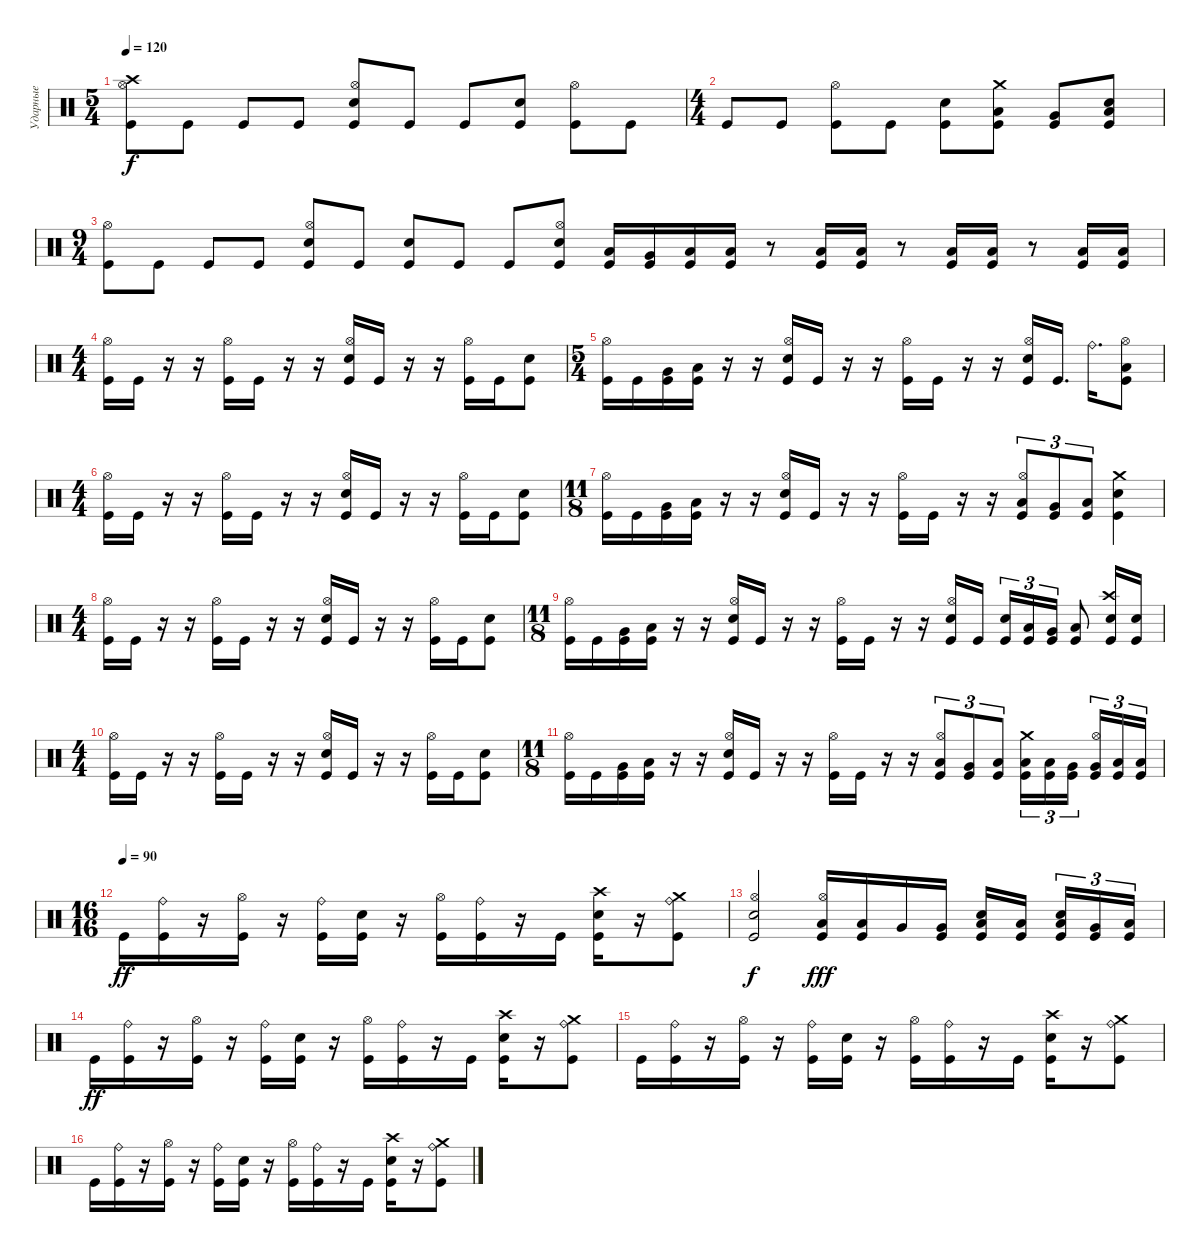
\track ("Ударные" "Ударные") {instrument percussion}
\staff {score}
\articulation defaults
\ts (5 4)
\tempo 120
\clef neutral
\ks c
("Kick (hit)" "Crash high (hit)" "Hi-Hat (open)").8{dy f} "Kick (hit)".8 "Kick (hit)".8 "Kick (hit)".8 ("Kick (hit)" "Snare (hit) 2" "Hi-Hat (open)").8 "Kick (hit)".8 "Kick (hit)".8 ("Kick (hit)" "Snare (hit) 2").8 ("Kick (hit)" "Hi-Hat (open)").8 "Kick (hit)".8 |
\ts (4 4)
"Kick (hit)".8 "Kick (hit)".8 ("Kick (hit)" "Hi-Hat (open)").8 "Kick (hit)".8 ("Kick (hit)" "Snare (hit) 2").8 ("Kick (hit)" "Low Tom (hit)" "Crash medium (hit)").8 ("Kick (hit)" "Very Low Tom (hit)").8 ("Kick (hit)" "Low Floor Tom (hit)" "Snare (hit) 2").8 |
\ts (9 4)
("Kick (hit)" "Hi-Hat (open)").8 "Kick (hit)".8 "Kick (hit)".8 "Kick (hit)".8 ("Kick (hit)" "Hi-Hat (open)" "Snare (hit) 2").8 "Kick (hit)".8 ("Kick (hit)" "Snare (hit) 2").8 "Kick (hit)".8 "Kick (hit)".8 ("Kick (hit)" "Hi-Hat (open)" "Snare (hit) 2").8 ("Kick (hit)" "Low Tom (hit)").16 ("Kick (hit)" "Very Low Tom (hit)").16 ("Kick (hit)" "Low Floor Tom (hit)").16 ("Kick (hit)" "Low Floor Tom (hit)").16 r.8 ("Kick (hit)" "Low Floor Tom (hit)").16 ("Kick (hit)" "Low Floor Tom (hit)").16 r.8 ("Kick (hit)" "Low Floor Tom (hit)").16 ("Kick (hit)" "Low Floor Tom (hit)").16 r.8 ("Kick (hit)" "Low Floor Tom (hit)").16 ("Kick (hit)" "Low Floor Tom (hit)").16 |
\ts (4 4)
("Kick (hit)" "Hi-Hat (open)").16 "Kick (hit)".16 r.16 r.16 ("Kick (hit)" "Hi-Hat (open)").16 "Kick (hit)".16 r.16 r.16 ("Kick (hit)" "Snare (hit) 2" "Hi-Hat (open)").16 "Kick (hit)".16 r.16 r.16 ("Kick (hit)" "Hi-Hat (open)").16 "Kick (hit)".16 ("Kick (hit)" "Snare (hit) 2").8 |
\ts (5 4)
("Kick (hit)" "Hi-Hat (open)").16 "Kick (hit)".16 ("Kick (hit)" "Very Low Tom (hit)").16 ("Kick (hit)" "Low Floor Tom (hit)").16 r.16 r.16 ("Kick (hit)" "Snare (hit) 2" "Hi-Hat (open)").16 "Kick (hit)".16 r.16 r.16 ("Kick (hit)" "Hi-Hat (open)").16 "Kick (hit)".16 r.16 r.16 ("Kick (hit)" "Snare (hit) 2" "Hi-Hat (open)").16 "Kick (hit)".16{d} "Ride (bell)".16{d} ("Kick (hit)" "Low Floor Tom (hit)" "Hi-Hat (open)").8 |
\ts (4 4)
("Kick (hit)" "Hi-Hat (open)").16 "Kick (hit)".16 r.16 r.16 ("Kick (hit)" "Hi-Hat (open)").16 "Kick (hit)".16 r.16 r.16 ("Kick (hit)" "Snare (hit) 2" "Hi-Hat (open)").16 "Kick (hit)".16 r.16 r.16 ("Kick (hit)" "Hi-Hat (open)").16 "Kick (hit)".16 ("Kick (hit)" "Snare (hit) 2").8 |
\ts (11 8)
("Kick (hit)" "Hi-Hat (open)").16 "Kick (hit)".16 ("Kick (hit)" "Very Low Tom (hit)").16 ("Kick (hit)" "Low Floor Tom (hit)").16 r.16 r.16 ("Kick (hit)" "Snare (hit) 2" "Hi-Hat (open)").16 "Kick (hit)".16 r.16 r.16 ("Kick (hit)" "Hi-Hat (open)").16 "Kick (hit)".16 r.16 r.16 ("Kick (hit)" "Low Tom (hit)" "Hi-Hat (open)").8{tu (3 2)} ("Kick (hit)" "Very Low Tom (hit)").8{tu (3 2)} ("Kick (hit)" "Low Floor Tom (hit)").8{tu (3 2)} ("Kick (hit)" "Crash medium (hit)" "Snare (hit) 2").4 |
\ts (4 4)
("Kick (hit)" "Hi-Hat (open)").16 "Kick (hit)".16 r.16 r.16 ("Kick (hit)" "Hi-Hat (open)").16 "Kick (hit)".16 r.16 r.16 ("Kick (hit)" "Snare (hit) 2" "Hi-Hat (open)").16 "Kick (hit)".16 r.16 r.16 ("Kick (hit)" "Hi-Hat (open)").16 "Kick (hit)".16 ("Kick (hit)" "Snare (hit) 2").8 |
\ts (11 8)
("Kick (hit)" "Hi-Hat (open)").16 "Kick (hit)".16 ("Kick (hit)" "Very Low Tom (hit)").16 ("Kick (hit)" "Low Floor Tom (hit)").16 r.16 r.16 ("Kick (hit)" "Snare (hit) 2" "Hi-Hat (open)").16 "Kick (hit)".16 r.16 r.16 ("Kick (hit)" "Hi-Hat (open)").16 "Kick (hit)".16 r.16 r.16 ("Kick (hit)" "Snare (hit) 2" "Hi-Hat (open)").16 "Kick (hit)".16 ("Kick (hit)" "Snare (hit) 2").16{tu (3 2)} ("Kick (hit)" "Low Tom (hit)").16{tu (3 2)} ("Kick (hit)" "Very Low Tom (hit)").16{tu (3 2)} ("Kick (hit)" "Low Floor Tom (hit)").8 ("Kick (hit)" "Crash high (hit)" "Snare (hit) 2").16 ("Kick (hit)" "Snare (hit) 2").16 |
\ts (4 4)
("Kick (hit)" "Hi-Hat (open)").16 "Kick (hit)".16 r.16 r.16 ("Kick (hit)" "Hi-Hat (open)").16 "Kick (hit)".16 r.16 r.16 ("Kick (hit)" "Snare (hit) 2" "Hi-Hat (open)").16 "Kick (hit)".16 r.16 r.16 ("Kick (hit)" "Hi-Hat (open)").16 "Kick (hit)".16 ("Kick (hit)" "Snare (hit) 2").8 |
\ts (11 8)
("Kick (hit)" "Hi-Hat (open)").16 "Kick (hit)".16 ("Kick (hit)" "Very Low Tom (hit)").16 ("Kick (hit)" "Low Floor Tom (hit)").16 r.16 r.16 ("Kick (hit)" "Snare (hit) 2" "Hi-Hat (open)").16 "Kick (hit)".16 r.16 r.16 ("Kick (hit)" "Hi-Hat (open)").16 "Kick (hit)".16 r.16 r.16 ("Kick (hit)" "Low Tom (hit)" "Hi-Hat (open)").8{tu (3 2)} ("Kick (hit)" "Very Low Tom (hit)").8{tu (3 2)} ("Kick (hit)" "Low Floor Tom (hit)").8{tu (3 2)} ("Kick (hit)" "Crash medium (hit)" "Low Tom (hit)").16{tu (3 2)} ("Kick (hit)" "Low Tom (hit)").16{tu (3 2)} ("Kick (hit)" "Very Low Tom (hit)").16{tu (3 2)} ("Kick (hit)" "Very Low Tom (hit)" "Hi-Hat (open)").16{tu (3 2)} ("Kick (hit)" "Low Floor Tom (hit)").16{tu (3 2)} ("Kick (hit)" "Low Floor Tom (hit)").16{tu (3 2)} |
\ts (16 16)
\tempo (90)
"Kick (hit)".16{dy ff} ("Ride (bell)" "Kick (hit)").16 r.16 ("Hi-Hat (open)" "Kick (hit)").16 r.16 ("Ride (bell)" "Kick (hit)").16 ("Snare (hit) 2" "Kick (hit)").16 r.16 ("Hi-Hat (open)" "Kick (hit)").16 ("Ride (bell)" "Kick (hit)").16 r.16 "Kick (hit)".16 ("Crash high (hit)" "Snare (hit) 2" "Kick (hit)").16 r.16 ("Crash medium (hit)" "Ride (bell)" "Kick (hit)").8 |
("Hi-Hat (open)" "Snare (hit) 2" "Kick (hit)").2{dy f} ("Hi-Hat (open)" "Low Tom (hit)" "Kick (hit)").16{dy fff} ("Low Tom (hit)" "Kick (hit)").16 "Very Low Tom (hit)".16 ("Very Low Tom (hit)" "Kick (hit)").16 ("Low Floor Tom (hit)" "Snare (hit) 2" "Kick (hit)").16 ("Low Floor Tom (hit)" "Kick (hit)").16 ("Low Tom (hit)" "Snare (hit) 2" "Kick (hit)").16{tu (3 2)} ("Very Low Tom (hit)" "Kick (hit)").16{tu (3 2)} ("Low Floor Tom (hit)" "Kick (hit)").16{tu (3 2)} |
"Kick (hit)".16{dy ff} ("Ride (bell)" "Kick (hit)").16 r.16 ("Hi-Hat (open)" "Kick (hit)").16 r.16 ("Ride (bell)" "Kick (hit)").16 ("Snare (hit) 2" "Kick (hit)").16 r.16 ("Hi-Hat (open)" "Kick (hit)").16 ("Ride (bell)" "Kick (hit)").16 r.16 "Kick (hit)".16 ("Crash high (hit)" "Snare (hit) 2" "Kick (hit)").16 r.16 ("Crash medium (hit)" "Ride (bell)" "Kick (hit)").8 |
"Kick (hit)".16 ("Ride (bell)" "Kick (hit)").16 r.16 ("Hi-Hat (open)" "Kick (hit)").16 r.16 ("Ride (bell)" "Kick (hit)").16 ("Snare (hit) 2" "Kick (hit)").16 r.16 ("Hi-Hat (open)" "Kick (hit)").16 ("Ride (bell)" "Kick (hit)").16 r.16 "Kick (hit)".16 ("Crash high (hit)" "Snare (hit) 2" "Kick (hit)").16 r.16 ("Crash medium (hit)" "Ride (bell)" "Kick (hit)").8 |
"Kick (hit)".16 ("Ride (bell)" "Kick (hit)").16 r.16 ("Hi-Hat (open)" "Kick (hit)").16 r.16 ("Ride (bell)" "Kick (hit)").16 ("Snare (hit) 2" "Kick (hit)").16 r.16 ("Hi-Hat (open)" "Kick (hit)").16 ("Ride (bell)" "Kick (hit)").16 r.16 "Kick (hit)".16 ("Crash high (hit)" "Snare (hit) 2" "Kick (hit)").16 r.16 ("Crash medium (hit)" "Ride (bell)" "Kick (hit)").8
